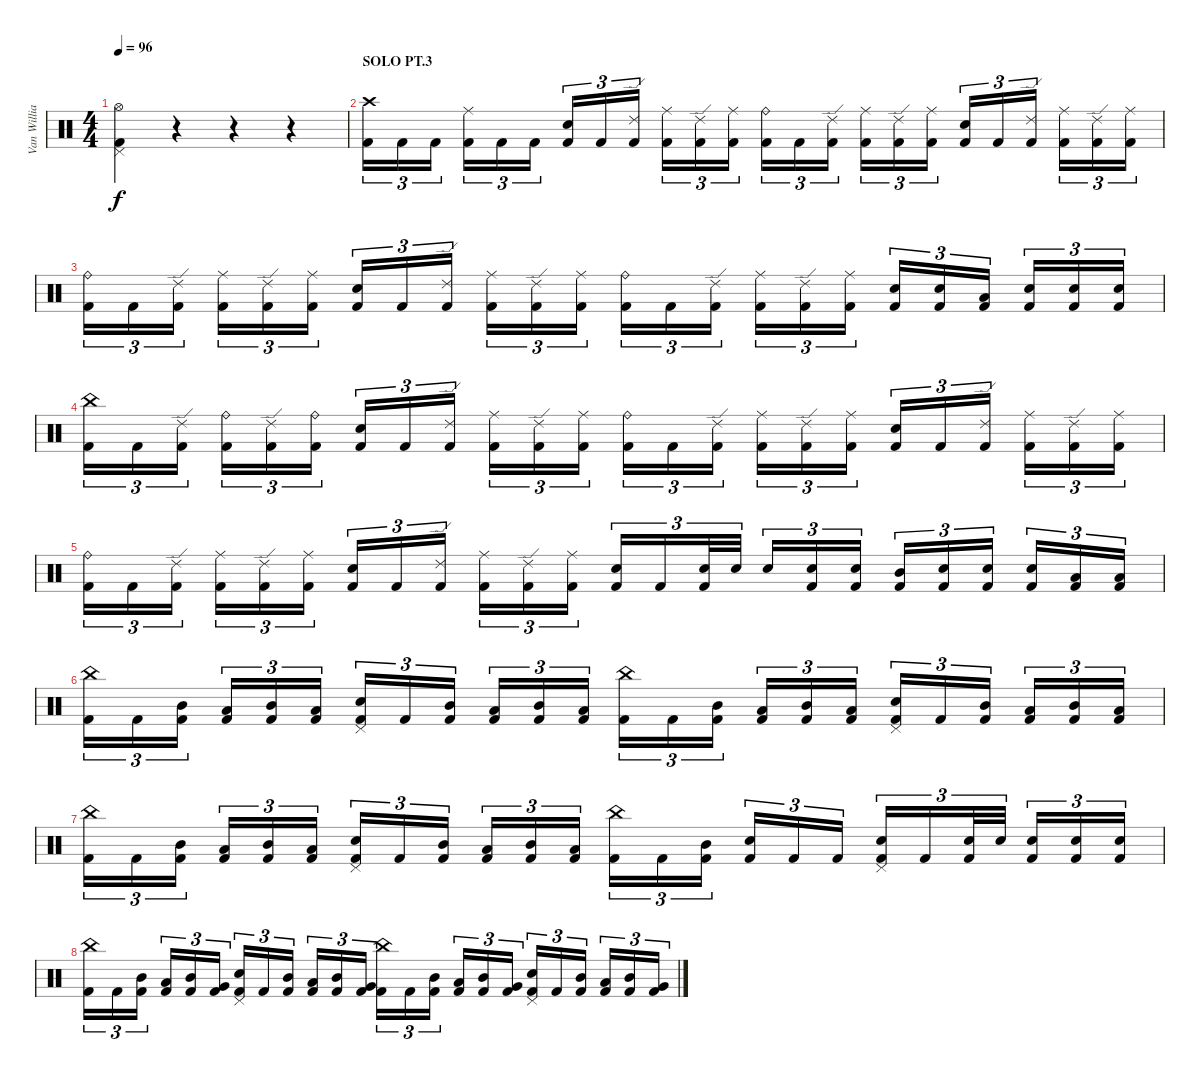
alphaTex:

\track ("Van Williams" "Van Willia") {instrument percussion}
\staff {score}
\articulation defaults
\ts (4 4)
\tempo 96
\clef neutral
\ks c
("Hi-Hat (open)" "Pedal Hi-Hat (hit)" "Kick (hit) 2").4{dy f} r.4 r.4 r.4 |
\section ("" "SOLO PT.3")
("Crash high (hit)" "Kick (hit) 2").16{tu (3 2)} "Kick (hit) 2".16{tu (3 2)} "Kick (hit) 2".16{tu (3 2)} ("Ride (middle)" "Kick (hit) 2").16{tu (3 2)} "Kick (hit) 2".16{tu (3 2)} "Kick (hit) 2".16{tu (3 2)} ("Electric Snare (hit)" "Kick (hit) 2").16{tu (3 2)} "Kick (hit) 2".16{tu (3 2)} ("Ride (edge) 2" "Kick (hit) 2").16{tu (3 2)} ("Ride (middle)" "Kick (hit) 2").16{tu (3 2)} ("Ride (edge) 2" "Kick (hit) 2").16{tu (3 2)} ("Ride (middle)" "Kick (hit) 2").16{tu (3 2)} ("Ride (bell)" "Kick (hit) 2").16{tu (3 2)} "Kick (hit) 2".16{tu (3 2)} ("Ride (edge) 2" "Kick (hit) 2").16{tu (3 2)} ("Ride (middle)" "Kick (hit) 2").16{tu (3 2)} ("Ride (edge) 2" "Kick (hit) 2").16{tu (3 2)} ("Ride (middle)" "Kick (hit) 2").16{tu (3 2)} ("Electric Snare (hit)" "Kick (hit) 2").16{tu (3 2)} "Kick (hit) 2".16{tu (3 2)} ("Ride (edge) 2" "Kick (hit) 2").16{tu (3 2)} ("Ride (middle)" "Kick (hit) 2").16{tu (3 2)} ("Ride (edge) 2" "Kick (hit) 2").16{tu (3 2)} ("Ride (middle)" "Kick (hit) 2").16{tu (3 2)} |
("Ride (bell)" "Kick (hit) 2").16{tu (3 2)} "Kick (hit) 2".16{tu (3 2)} ("Ride (edge) 2" "Kick (hit) 2").16{tu (3 2)} ("Ride (middle)" "Kick (hit) 2").16{tu (3 2)} ("Ride (edge) 2" "Kick (hit) 2").16{tu (3 2)} ("Ride (middle)" "Kick (hit) 2").16{tu (3 2)} ("Electric Snare (hit)" "Kick (hit) 2").16{tu (3 2)} "Kick (hit) 2".16{tu (3 2)} ("Ride (edge) 2" "Kick (hit) 2").16{tu (3 2)} ("Ride (middle)" "Kick (hit) 2").16{tu (3 2)} ("Ride (edge) 2" "Kick (hit) 2").16{tu (3 2)} ("Ride (middle)" "Kick (hit) 2").16{tu (3 2)} ("Ride (bell)" "Kick (hit) 2").16{tu (3 2)} "Kick (hit) 2".16{tu (3 2)} ("Ride (edge) 2" "Kick (hit) 2").16{tu (3 2)} ("Ride (middle)" "Kick (hit) 2").16{tu (3 2)} ("Ride (edge) 2" "Kick (hit) 2").16{tu (3 2)} ("Ride (middle)" "Kick (hit) 2").16{tu (3 2)} ("Electric Snare (hit)" "Kick (hit) 2").16{tu (3 2)} ("Electric Snare (hit)" "Kick (hit) 2").16{tu (3 2)} ("Low Tom (hit)" "Kick (hit) 2").16{tu (3 2)} ("Electric Snare (hit)" "Kick (hit) 2").16{tu (3 2)} ("Electric Snare (hit)" "Kick (hit) 2").16{tu (3 2)} ("Electric Snare (hit)" "Kick (hit) 2").16{tu (3 2)} |
("China (hit)" "Kick (hit) 2").16{tu (3 2)} "Kick (hit) 2".16{tu (3 2)} ("Ride (edge) 2" "Kick (hit) 2").16{tu (3 2)} ("Ride (bell)" "Kick (hit) 2").16{tu (3 2)} ("Ride (edge) 2" "Kick (hit) 2").16{tu (3 2)} ("Ride (bell)" "Kick (hit) 2").16{tu (3 2)} ("Electric Snare (hit)" "Kick (hit) 2").16{tu (3 2)} "Kick (hit) 2".16{tu (3 2)} ("Ride (edge) 2" "Kick (hit) 2").16{tu (3 2)} ("Ride (middle)" "Kick (hit) 2").16{tu (3 2)} ("Ride (edge) 2" "Kick (hit) 2").16{tu (3 2)} ("Ride (middle)" "Kick (hit) 2").16{tu (3 2)} ("Ride (bell)" "Kick (hit) 2").16{tu (3 2)} "Kick (hit) 2".16{tu (3 2)} ("Ride (edge) 2" "Kick (hit) 2").16{tu (3 2)} ("Ride (middle)" "Kick (hit) 2").16{tu (3 2)} ("Ride (edge) 2" "Kick (hit) 2").16{tu (3 2)} ("Ride (middle)" "Kick (hit) 2").16{tu (3 2)} ("Electric Snare (hit)" "Kick (hit) 2").16{tu (3 2)} "Kick (hit) 2".16{tu (3 2)} ("Ride (edge) 2" "Kick (hit) 2").16{tu (3 2)} ("Ride (middle)" "Kick (hit) 2").16{tu (3 2)} ("Ride (edge) 2" "Kick (hit) 2").16{tu (3 2)} ("Ride (middle)" "Kick (hit) 2").16{tu (3 2)} |
("Ride (bell)" "Kick (hit) 2").16{tu (3 2)} "Kick (hit) 2".16{tu (3 2)} ("Ride (edge) 2" "Kick (hit) 2").16{tu (3 2)} ("Ride (middle)" "Kick (hit) 2").16{tu (3 2)} ("Ride (edge) 2" "Kick (hit) 2").16{tu (3 2)} ("Ride (middle)" "Kick (hit) 2").16{tu (3 2)} ("Electric Snare (hit)" "Kick (hit) 2").16{tu (3 2)} "Kick (hit) 2".16{tu (3 2)} ("Ride (edge) 2" "Kick (hit) 2").16{tu (3 2)} ("Ride (middle)" "Kick (hit) 2").16{tu (3 2)} ("Ride (edge) 2" "Kick (hit) 2").16{tu (3 2)} ("Ride (middle)" "Kick (hit) 2").16{tu (3 2)} ("Electric Snare (hit)" "Kick (hit) 2").16{tu (3 2)} "Kick (hit) 2".16{tu (3 2)} ("Electric Snare (hit)" "Kick (hit) 2").32{tu (3 2)} "Electric Snare (hit)".32{tu (3 2)} "Electric Snare (hit)".16{tu (3 2)} ("Electric Snare (hit)" "Kick (hit) 2").16{tu (3 2)} ("Electric Snare (hit)" "Kick (hit) 2").16{tu (3 2)} ("Mid Tom (hit)" "Kick (hit) 2").16{tu (3 2)} ("Electric Snare (hit)" "Kick (hit) 2").16{tu (3 2)} ("Electric Snare (hit)" "Kick (hit) 2").16{tu (3 2)} ("Electric Snare (hit)" "Kick (hit) 2").16{tu (3 2)} ("Low Tom (hit)" "Kick (hit) 2").16{tu (3 2)} ("Low Tom (hit)" "Kick (hit) 2").16{tu (3 2)} |
("China (hit)" "Kick (hit) 2").16{tu (3 2)} "Kick (hit) 2".16{tu (3 2)} ("Mid Tom (hit)" "Kick (hit) 2").16{tu (3 2)} ("Low Tom (hit)" "Kick (hit) 2").16{tu (3 2)} ("Mid Tom (hit)" "Kick (hit) 2").16{tu (3 2)} ("Low Tom (hit)" "Kick (hit) 2").16{tu (3 2)} ("Pedal Hi-Hat (hit)" "Electric Snare (hit)" "Kick (hit) 2").16{tu (3 2)} "Kick (hit) 2".16{tu (3 2)} ("Mid Tom (hit)" "Kick (hit) 2").16{tu (3 2)} ("Low Tom (hit)" "Kick (hit) 2").16{tu (3 2)} ("Mid Tom (hit)" "Kick (hit) 2").16{tu (3 2)} ("Low Tom (hit)" "Kick (hit) 2").16{tu (3 2)} ("China (hit)" "Kick (hit) 2").16{tu (3 2)} "Kick (hit) 2".16{tu (3 2)} ("Mid Tom (hit)" "Kick (hit) 2").16{tu (3 2)} ("Low Tom (hit)" "Kick (hit) 2").16{tu (3 2)} ("Mid Tom (hit)" "Kick (hit) 2").16{tu (3 2)} ("Low Tom (hit)" "Kick (hit) 2").16{tu (3 2)} ("Pedal Hi-Hat (hit)" "Electric Snare (hit)" "Kick (hit) 2").16{tu (3 2)} "Kick (hit) 2".16{tu (3 2)} ("Mid Tom (hit)" "Kick (hit) 2").16{tu (3 2)} ("Low Tom (hit)" "Kick (hit) 2").16{tu (3 2)} ("Mid Tom (hit)" "Kick (hit) 2").16{tu (3 2)} ("Low Tom (hit)" "Kick (hit) 2").16{tu (3 2)} |
("China (hit)" "Kick (hit) 2").16{tu (3 2)} "Kick (hit) 2".16{tu (3 2)} ("Mid Tom (hit)" "Kick (hit) 2").16{tu (3 2)} ("Low Tom (hit)" "Kick (hit) 2").16{tu (3 2)} ("Mid Tom (hit)" "Kick (hit) 2").16{tu (3 2)} ("Low Tom (hit)" "Kick (hit) 2").16{tu (3 2)} ("Pedal Hi-Hat (hit)" "Electric Snare (hit)" "Kick (hit) 2").16{tu (3 2)} "Kick (hit) 2".16{tu (3 2)} ("Mid Tom (hit)" "Kick (hit) 2").16{tu (3 2)} ("Low Tom (hit)" "Kick (hit) 2").16{tu (3 2)} ("Mid Tom (hit)" "Kick (hit) 2").16{tu (3 2)} ("Low Tom (hit)" "Kick (hit) 2").16{tu (3 2)} ("China (hit)" "Kick (hit) 2").16{tu (3 2)} "Kick (hit) 2".16{tu (3 2)} ("Mid Tom (hit)" "Kick (hit) 2").16{tu (3 2)} ("Electric Snare (hit)" "Kick (hit) 2").16{tu (3 2)} "Kick (hit) 2".16{tu (3 2)} "Kick (hit) 2".16{tu (3 2)} ("Pedal Hi-Hat (hit)" "Electric Snare (hit)" "Kick (hit) 2").16{tu (3 2)} "Kick (hit) 2".16{tu (3 2)} ("Electric Snare (hit)" "Kick (hit) 2").32{tu (3 2)} "Electric Snare (hit)".32{tu (3 2)} ("Electric Snare (hit)" "Kick (hit) 2").16{tu (3 2)} ("Electric Snare (hit)" "Kick (hit) 2").16{tu (3 2)} ("Electric Snare (hit)" "Kick (hit) 2").16{tu (3 2)} |
("China (hit)" "Kick (hit) 2").16{tu (3 2)} "Kick (hit) 2".16{tu (3 2)} ("Mid Tom (hit)" "Kick (hit) 2").16{tu (3 2)} ("Low Tom (hit)" "Kick (hit) 2").16{tu (3 2)} ("Mid Tom (hit)" "Kick (hit) 2").16{tu (3 2)} ("Very Low Tom (hit)" "Kick (hit) 2").16{tu (3 2)} ("Pedal Hi-Hat (hit)" "Electric Snare (hit)" "Kick (hit) 2").16{tu (3 2)} "Kick (hit) 2".16{tu (3 2)} ("Mid Tom (hit)" "Kick (hit) 2").16{tu (3 2)} ("Low Tom (hit)" "Kick (hit) 2").16{tu (3 2)} ("Mid Tom (hit)" "Kick (hit) 2").16{tu (3 2)} ("Very Low Tom (hit)" "Kick (hit) 2").16{tu (3 2)} ("China (hit)" "Kick (hit) 2").16{tu (3 2)} "Kick (hit) 2".16{tu (3 2)} ("Mid Tom (hit)" "Kick (hit) 2").16{tu (3 2)} ("Low Tom (hit)" "Kick (hit) 2").16{tu (3 2)} ("Mid Tom (hit)" "Kick (hit) 2").16{tu (3 2)} ("Very Low Tom (hit)" "Kick (hit) 2").16{tu (3 2)} ("Pedal Hi-Hat (hit)" "Electric Snare (hit)" "Kick (hit) 2").16{tu (3 2)} "Kick (hit) 2".16{tu (3 2)} ("Mid Tom (hit)" "Kick (hit) 2").16{tu (3 2)} ("Low Tom (hit)" "Kick (hit) 2").16{tu (3 2)} ("Mid Tom (hit)" "Kick (hit) 2").16{tu (3 2)} ("Very Low Tom (hit)" "Kick (hit) 2").16{tu (3 2)}
